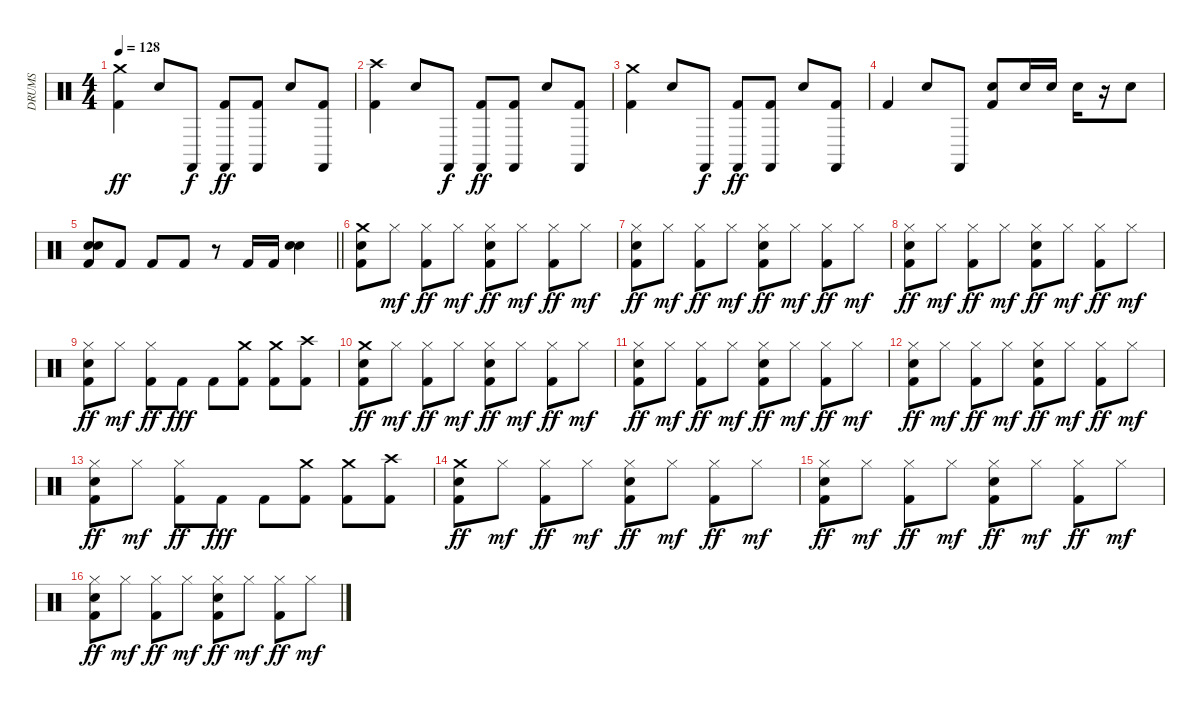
\track ("DRUMS" "DRUMS") {instrument percussion}
\staff {score}
\articulation defaults
\ts (4 4)
\tempo 128
\clef neutral
\ks c
("Crash medium (hit)" "Kick (hit) 2").4{dy ff} "Snare (hit) 2".8 "Castanets (hit)".8{dy f} ("Castanets (hit)" "Kick (hit) 2").8{dy ff} ("Castanets (hit)" "Kick (hit) 2").8 "Snare (hit) 2".8 ("Castanets (hit)" "Kick (hit) 2").8 |
("Crash high (hit)" "Kick (hit) 2").4 "Snare (hit) 2".8 "Castanets (hit)".8{dy f} ("Castanets (hit)" "Kick (hit) 2").8{dy ff} ("Castanets (hit)" "Kick (hit) 2").8 "Snare (hit) 2".8 ("Castanets (hit)" "Kick (hit) 2").8 |
("Crash medium (hit)" "Kick (hit) 2").4 "Snare (hit) 2".8 "Castanets (hit)".8{dy f} ("Castanets (hit)" "Kick (hit) 2").8{dy ff} ("Castanets (hit)" "Kick (hit) 2").8 "Snare (hit) 2".8 ("Castanets (hit)" "Kick (hit) 2").8 |
"Kick (hit) 2".4 "Snare (hit) 2".8 "Castanets (hit)".8 ("Snare (hit) 2" "Kick (hit) 2").8 "Snare (hit) 2".16 "Snare (hit) 2".16 "Snare (hit) 2".16 r.16 "Snare (hit) 2".8 |
\barLineRight lightlight
("Electric Snare (hit)" "Snare (hit) 2" "Kick (hit) 2").8 "Kick (hit) 2".8 "Kick (hit) 2".8 "Kick (hit) 2".8 r.8 "Kick (hit) 2".16 "Kick (hit) 2".16 ("Electric Snare (hit)" "Snare (hit) 2").4 |
("Crash medium (hit)" "Snare (hit) 2" "Kick (hit) 2").8 "Hi-Hat (closed)".8{dy mf} ("Hi-Hat (closed)" "Kick (hit) 2").8{dy ff} "Hi-Hat (closed)".8{dy mf} ("Hi-Hat (closed)" "Snare (hit) 2" "Kick (hit) 2").8{dy ff} "Hi-Hat (closed)".8{dy mf} ("Hi-Hat (closed)" "Kick (hit) 2").8{dy ff} "Hi-Hat (closed)".8{dy mf} |
("Hi-Hat (closed)" "Snare (hit) 2" "Kick (hit) 2").8{dy ff} "Hi-Hat (closed)".8{dy mf} ("Hi-Hat (closed)" "Kick (hit) 2").8{dy ff} "Hi-Hat (closed)".8{dy mf} ("Hi-Hat (closed)" "Snare (hit) 2" "Kick (hit) 2").8{dy ff} "Hi-Hat (closed)".8{dy mf} ("Hi-Hat (closed)" "Kick (hit) 2").8{dy ff} "Hi-Hat (closed)".8{dy mf} |
("Hi-Hat (closed)" "Snare (hit) 2" "Kick (hit) 2").8{dy ff} "Hi-Hat (closed)".8{dy mf} ("Hi-Hat (closed)" "Kick (hit) 2").8{dy ff} "Hi-Hat (closed)".8{dy mf} ("Hi-Hat (closed)" "Snare (hit) 2" "Kick (hit) 2").8{dy ff} "Hi-Hat (closed)".8{dy mf} ("Hi-Hat (closed)" "Kick (hit) 2").8{dy ff} "Hi-Hat (closed)".8{dy mf} |
("Hi-Hat (closed)" "Snare (hit) 2" "Kick (hit) 2").8{dy ff} "Hi-Hat (closed)".8{dy mf} ("Hi-Hat (closed)" "Kick (hit) 2").8{dy ff} "Kick (hit) 2".8{dy fff} "Kick (hit) 2".8 ("Crash medium (hit)" "Kick (hit) 2").8 ("Crash medium (hit)" "Kick (hit) 2").8 ("Crash high (hit)" "Kick (hit) 2").8 |
("Crash medium (hit)" "Snare (hit) 2" "Kick (hit) 2").8{dy ff} "Hi-Hat (closed)".8{dy mf} ("Hi-Hat (closed)" "Kick (hit) 2").8{dy ff} "Hi-Hat (closed)".8{dy mf} ("Hi-Hat (closed)" "Snare (hit) 2" "Kick (hit) 2").8{dy ff} "Hi-Hat (closed)".8{dy mf} ("Hi-Hat (closed)" "Kick (hit) 2").8{dy ff} "Hi-Hat (closed)".8{dy mf} |
("Hi-Hat (closed)" "Snare (hit) 2" "Kick (hit) 2").8{dy ff} "Hi-Hat (closed)".8{dy mf} ("Hi-Hat (closed)" "Kick (hit) 2").8{dy ff} "Hi-Hat (closed)".8{dy mf} ("Hi-Hat (closed)" "Snare (hit) 2" "Kick (hit) 2").8{dy ff} "Hi-Hat (closed)".8{dy mf} ("Hi-Hat (closed)" "Kick (hit) 2").8{dy ff} "Hi-Hat (closed)".8{dy mf} |
("Hi-Hat (closed)" "Snare (hit) 2" "Kick (hit) 2").8{dy ff} "Hi-Hat (closed)".8{dy mf} ("Hi-Hat (closed)" "Kick (hit) 2").8{dy ff} "Hi-Hat (closed)".8{dy mf} ("Hi-Hat (closed)" "Snare (hit) 2" "Kick (hit) 2").8{dy ff} "Hi-Hat (closed)".8{dy mf} ("Hi-Hat (closed)" "Kick (hit) 2").8{dy ff} "Hi-Hat (closed)".8{dy mf} |
("Hi-Hat (closed)" "Snare (hit) 2" "Kick (hit) 2").8{dy ff} "Hi-Hat (closed)".8{dy mf} ("Hi-Hat (closed)" "Kick (hit) 2").8{dy ff} "Kick (hit) 2".8{dy fff} "Kick (hit) 2".8 ("Crash medium (hit)" "Kick (hit) 2").8 ("Crash medium (hit)" "Kick (hit) 2").8 ("Crash high (hit)" "Kick (hit) 2").8 |
("Crash medium (hit)" "Snare (hit) 2" "Kick (hit) 2").8{dy ff} "Hi-Hat (closed)".8{dy mf} ("Hi-Hat (closed)" "Kick (hit) 2").8{dy ff} "Hi-Hat (closed)".8{dy mf} ("Hi-Hat (closed)" "Snare (hit) 2" "Kick (hit) 2").8{dy ff} "Hi-Hat (closed)".8{dy mf} ("Hi-Hat (closed)" "Kick (hit) 2").8{dy ff} "Hi-Hat (closed)".8{dy mf} |
("Hi-Hat (closed)" "Snare (hit) 2" "Kick (hit) 2").8{dy ff} "Hi-Hat (closed)".8{dy mf} ("Hi-Hat (closed)" "Kick (hit) 2").8{dy ff} "Hi-Hat (closed)".8{dy mf} ("Hi-Hat (closed)" "Snare (hit) 2" "Kick (hit) 2").8{dy ff} "Hi-Hat (closed)".8{dy mf} ("Hi-Hat (closed)" "Kick (hit) 2").8{dy ff} "Hi-Hat (closed)".8{dy mf} |
("Hi-Hat (closed)" "Snare (hit) 2" "Kick (hit) 2").8{dy ff} "Hi-Hat (closed)".8{dy mf} ("Hi-Hat (closed)" "Kick (hit) 2").8{dy ff} "Hi-Hat (closed)".8{dy mf} ("Hi-Hat (closed)" "Snare (hit) 2" "Kick (hit) 2").8{dy ff} "Hi-Hat (closed)".8{dy mf} ("Hi-Hat (closed)" "Kick (hit) 2").8{dy ff} "Hi-Hat (closed)".8{dy mf}
